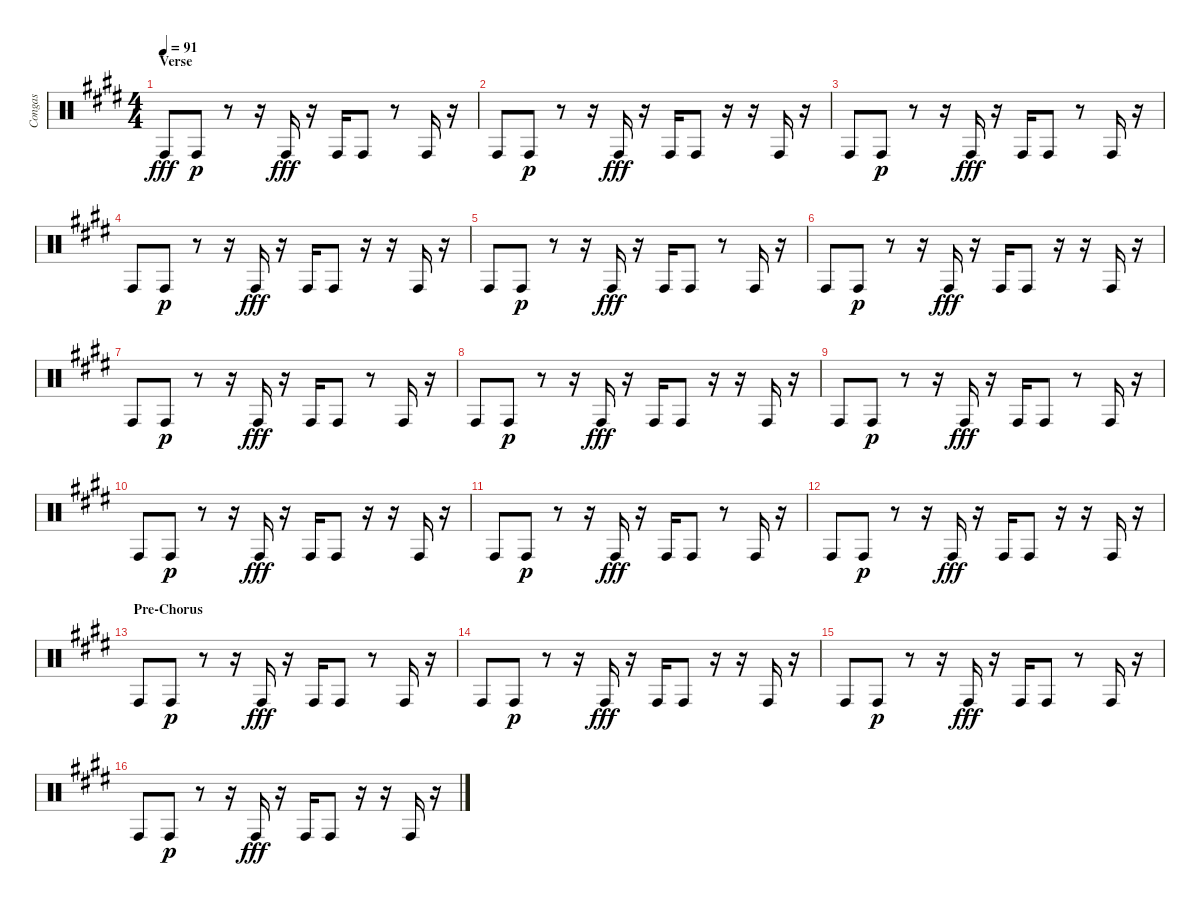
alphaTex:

\track ("Congas" "Congas") {instrument percussion}
\staff {score}
\articulation defaults
\ts (4 4)
\section ("" "Verse")
\tempo 91
\clef neutral
\ks e "Conga high (hit)".8{dy fff} "Conga high (hit)".8{dy p}
r.8 r.16 "Conga high (hit)".16{dy fff} r.16 "Conga high (hit)".16 "Conga high (hit)".8 r.8 "Conga high (hit)".16 r.16 |
"Conga high (hit)".8 "Conga high (hit)".8{dy p} r.8 r.16 "Conga high (hit)".16{dy fff} r.16 "Conga high (hit)".16 "Conga high (hit)".8 r.16 r.16 "Conga high (hit)".16 r.16 |
"Conga high (hit)".8 "Conga high (hit)".8{dy p} r.8 r.16 "Conga high (hit)".16{dy fff} r.16 "Conga high (hit)".16 "Conga high (hit)".8 r.8 "Conga high (hit)".16 r.16 |
"Conga high (hit)".8 "Conga high (hit)".8{dy p} r.8 r.16 "Conga high (hit)".16{dy fff} r.16 "Conga high (hit)".16 "Conga high (hit)".8 r.16 r.16 "Conga high (hit)".16 r.16 |
"Conga high (hit)".8 "Conga high (hit)".8{dy p} r.8 r.16 "Conga high (hit)".16{dy fff} r.16 "Conga high (hit)".16 "Conga high (hit)".8 r.8 "Conga high (hit)".16 r.16 |
"Conga high (hit)".8 "Conga high (hit)".8{dy p} r.8 r.16 "Conga high (hit)".16{dy fff} r.16 "Conga high (hit)".16 "Conga high (hit)".8 r.16 r.16 "Conga high (hit)".16 r.16 |
"Conga high (hit)".8 "Conga high (hit)".8{dy p} r.8 r.16 "Conga high (hit)".16{dy fff} r.16 "Conga high (hit)".16 "Conga high (hit)".8 r.8 "Conga high (hit)".16 r.16 |
"Conga high (hit)".8 "Conga high (hit)".8{dy p} r.8 r.16 "Conga high (hit)".16{dy fff} r.16 "Conga high (hit)".16 "Conga high (hit)".8 r.16 r.16 "Conga high (hit)".16 r.16 |
"Conga high (hit)".8 "Conga high (hit)".8{dy p} r.8 r.16 "Conga high (hit)".16{dy fff} r.16 "Conga high (hit)".16 "Conga high (hit)".8 r.8 "Conga high (hit)".16 r.16 |
"Conga high (hit)".8 "Conga high (hit)".8{dy p} r.8 r.16 "Conga high (hit)".16{dy fff} r.16 "Conga high (hit)".16 "Conga high (hit)".8 r.16 r.16 "Conga high (hit)".16 r.16 |
"Conga high (hit)".8 "Conga high (hit)".8{dy p} r.8 r.16 "Conga high (hit)".16{dy fff} r.16 "Conga high (hit)".16 "Conga high (hit)".8 r.8 "Conga high (hit)".16 r.16 |
"Conga high (hit)".8 "Conga high (hit)".8{dy p} r.8 r.16 "Conga high (hit)".16{dy fff} r.16 "Conga high (hit)".16 "Conga high (hit)".8 r.16 r.16 "Conga high (hit)".16 r.16 |
\section ("" "Pre-Chorus")
"Conga high (hit)".8 "Conga high (hit)".8{dy p} r.8 r.16 "Conga high (hit)".16{dy fff} r.16 "Conga high (hit)".16 "Conga high (hit)".8 r.8 "Conga high (hit)".16 r.16 |
"Conga high (hit)".8 "Conga high (hit)".8{dy p} r.8 r.16 "Conga high (hit)".16{dy fff} r.16 "Conga high (hit)".16 "Conga high (hit)".8 r.16 r.16 "Conga high (hit)".16 r.16 |
"Conga high (hit)".8 "Conga high (hit)".8{dy p} r.8 r.16 "Conga high (hit)".16{dy fff} r.16 "Conga high (hit)".16 "Conga high (hit)".8 r.8 "Conga high (hit)".16 r.16 |
"Conga high (hit)".8 "Conga high (hit)".8{dy p} r.8 r.16 "Conga high (hit)".16{dy fff} r.16 "Conga high (hit)".16 "Conga high (hit)".8 r.16 r.16 "Conga high (hit)".16 r.16
